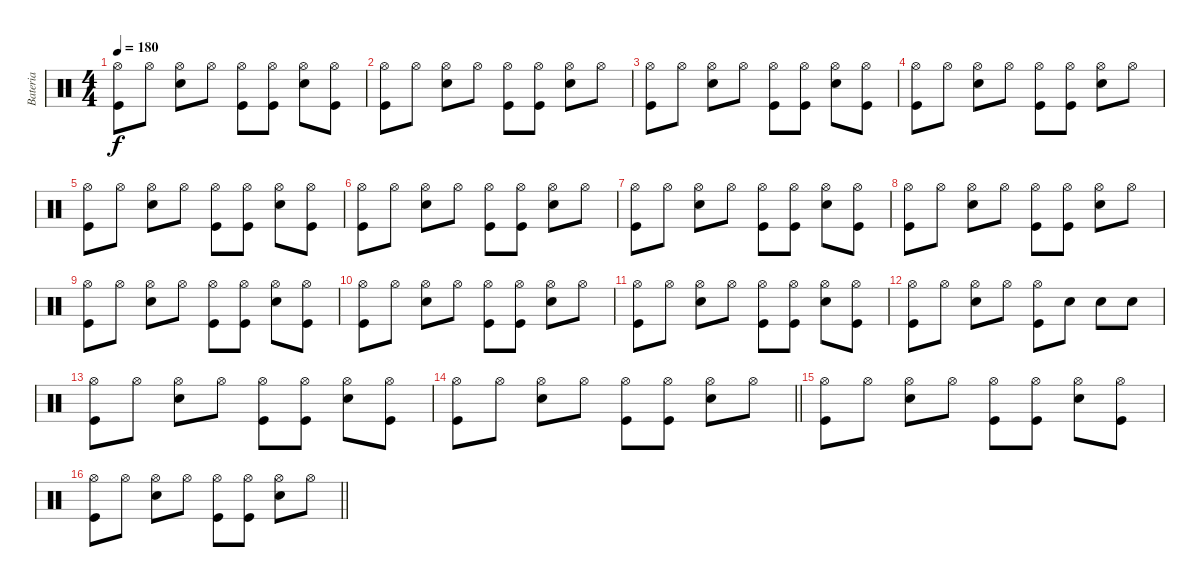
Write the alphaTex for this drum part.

\track ("Bateria" "Bateria") {instrument percussion}
\staff {score}
\articulation defaults
\ts (4 4)
\tempo 180
\clef neutral
\ks c
("Hi-Hat (open)" "Kick (hit)").8{dy f} "Hi-Hat (open)".8 ("Hi-Hat (open)" "Snare (hit) 2").8 "Hi-Hat (open)".8 ("Hi-Hat (open)" "Kick (hit)").8 ("Hi-Hat (open)" "Kick (hit)").8 ("Hi-Hat (open)" "Snare (hit) 2").8 ("Hi-Hat (open)" "Kick (hit)").8 |
("Hi-Hat (open)" "Kick (hit)").8 "Hi-Hat (open)".8 ("Hi-Hat (open)" "Snare (hit) 2").8 "Hi-Hat (open)".8 ("Hi-Hat (open)" "Kick (hit)").8 ("Hi-Hat (open)" "Kick (hit)").8 ("Hi-Hat (open)" "Snare (hit) 2").8 "Hi-Hat (open)".8 |
("Hi-Hat (open)" "Kick (hit)").8 "Hi-Hat (open)".8 ("Hi-Hat (open)" "Snare (hit) 2").8 "Hi-Hat (open)".8 ("Hi-Hat (open)" "Kick (hit)").8 ("Hi-Hat (open)" "Kick (hit)").8 ("Hi-Hat (open)" "Snare (hit) 2").8 ("Hi-Hat (open)" "Kick (hit)").8 |
("Hi-Hat (open)" "Kick (hit)").8 "Hi-Hat (open)".8 ("Hi-Hat (open)" "Snare (hit) 2").8 "Hi-Hat (open)".8 ("Hi-Hat (open)" "Kick (hit)").8 ("Hi-Hat (open)" "Kick (hit)").8 ("Hi-Hat (open)" "Snare (hit) 2").8 "Hi-Hat (open)".8 |
("Hi-Hat (open)" "Kick (hit)").8 "Hi-Hat (open)".8 ("Hi-Hat (open)" "Snare (hit) 2").8 "Hi-Hat (open)".8 ("Hi-Hat (open)" "Kick (hit)").8 ("Hi-Hat (open)" "Kick (hit)").8 ("Hi-Hat (open)" "Snare (hit) 2").8 ("Hi-Hat (open)" "Kick (hit)").8 |
("Hi-Hat (open)" "Kick (hit)").8 "Hi-Hat (open)".8 ("Hi-Hat (open)" "Snare (hit) 2").8 "Hi-Hat (open)".8 ("Hi-Hat (open)" "Kick (hit)").8 ("Hi-Hat (open)" "Kick (hit)").8 ("Hi-Hat (open)" "Snare (hit) 2").8 "Hi-Hat (open)".8 |
("Hi-Hat (open)" "Kick (hit)").8 "Hi-Hat (open)".8 ("Hi-Hat (open)" "Snare (hit) 2").8 "Hi-Hat (open)".8 ("Hi-Hat (open)" "Kick (hit)").8 ("Hi-Hat (open)" "Kick (hit)").8 ("Hi-Hat (open)" "Snare (hit) 2").8 ("Hi-Hat (open)" "Kick (hit)").8 |
("Hi-Hat (open)" "Kick (hit)").8 "Hi-Hat (open)".8 ("Hi-Hat (open)" "Snare (hit) 2").8 "Hi-Hat (open)".8 ("Hi-Hat (open)" "Kick (hit)").8 ("Hi-Hat (open)" "Kick (hit)").8 ("Hi-Hat (open)" "Snare (hit) 2").8 "Hi-Hat (open)".8 |
("Hi-Hat (open)" "Kick (hit)").8 "Hi-Hat (open)".8 ("Hi-Hat (open)" "Snare (hit) 2").8 "Hi-Hat (open)".8 ("Hi-Hat (open)" "Kick (hit)").8 ("Hi-Hat (open)" "Kick (hit)").8 ("Hi-Hat (open)" "Snare (hit) 2").8 ("Hi-Hat (open)" "Kick (hit)").8 |
("Hi-Hat (open)" "Kick (hit)").8 "Hi-Hat (open)".8 ("Hi-Hat (open)" "Snare (hit) 2").8 "Hi-Hat (open)".8 ("Hi-Hat (open)" "Kick (hit)").8 ("Hi-Hat (open)" "Kick (hit)").8 ("Hi-Hat (open)" "Snare (hit) 2").8 "Hi-Hat (open)".8 |
("Hi-Hat (open)" "Kick (hit)").8 "Hi-Hat (open)".8 ("Hi-Hat (open)" "Snare (hit) 2").8 "Hi-Hat (open)".8 ("Hi-Hat (open)" "Kick (hit)").8 ("Hi-Hat (open)" "Kick (hit)").8 ("Hi-Hat (open)" "Snare (hit) 2").8 ("Hi-Hat (open)" "Kick (hit)").8 |
("Hi-Hat (open)" "Kick (hit)").8 "Hi-Hat (open)".8 ("Hi-Hat (open)" "Snare (hit) 2").8 "Hi-Hat (open)".8 ("Hi-Hat (open)" "Kick (hit)").8 "Snare (hit) 2".8 "Snare (hit) 2".8 "Snare (hit) 2".8 |
("Hi-Hat (open)" "Kick (hit)").8 "Hi-Hat (open)".8 ("Hi-Hat (open)" "Snare (hit) 2").8 "Hi-Hat (open)".8 ("Hi-Hat (open)" "Kick (hit)").8 ("Hi-Hat (open)" "Kick (hit)").8 ("Hi-Hat (open)" "Snare (hit) 2").8 ("Hi-Hat (open)" "Kick (hit)").8 |
\barLineRight lightlight
("Hi-Hat (open)" "Kick (hit)").8 "Hi-Hat (open)".8 ("Hi-Hat (open)" "Snare (hit) 2").8 "Hi-Hat (open)".8 ("Hi-Hat (open)" "Kick (hit)").8 ("Hi-Hat (open)" "Kick (hit)").8 ("Hi-Hat (open)" "Snare (hit) 2").8 "Hi-Hat (open)".8 |
("Hi-Hat (open)" "Kick (hit)").8 "Hi-Hat (open)".8 ("Hi-Hat (open)" "Snare (hit) 2").8 "Hi-Hat (open)".8 ("Hi-Hat (open)" "Kick (hit)").8 ("Hi-Hat (open)" "Kick (hit)").8 ("Hi-Hat (open)" "Snare (hit) 2").8 ("Hi-Hat (open)" "Kick (hit)").8 |
\barLineRight lightlight
("Hi-Hat (open)" "Kick (hit)").8 "Hi-Hat (open)".8 ("Hi-Hat (open)" "Snare (hit) 2").8 "Hi-Hat (open)".8 ("Hi-Hat (open)" "Kick (hit)").8 ("Hi-Hat (open)" "Kick (hit)").8 ("Hi-Hat (open)" "Snare (hit) 2").8 "Hi-Hat (open)".8
